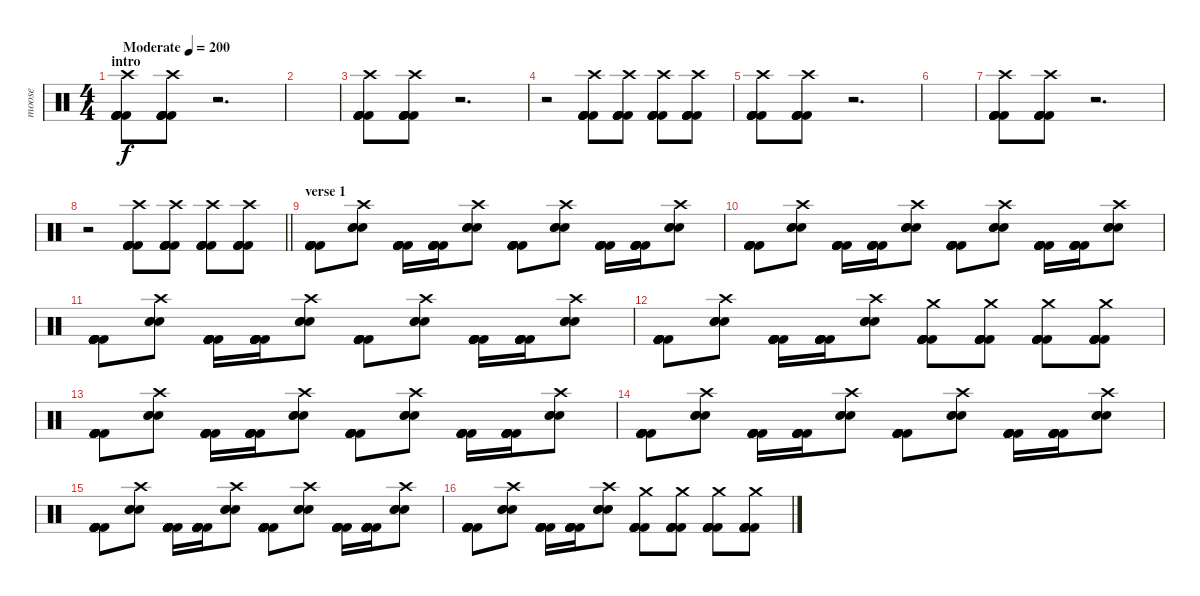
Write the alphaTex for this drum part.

\track ("moose" "moose") {instrument percussion}
\staff {score}
\articulation defaults
\ts (4 4)
\section ("" "intro")
\tempo (200 "Moderate")
\clef neutral
\ks c
("Kick (hit) 2" "Kick (hit) 2" "Kick (hit) 2" "Kick (hit) 2" "Kick (hit) 2" "Crash high (hit)").8{dy f} ("Kick (hit) 2" "Kick (hit) 2" "Kick (hit) 2" "Kick (hit) 2" "Kick (hit) 2" "Crash high (hit)").8 r.2{d} |
|
("Kick (hit) 2" "Kick (hit) 2" "Kick (hit) 2" "Kick (hit) 2" "Kick (hit) 2" "Crash high (hit)").8 ("Kick (hit) 2" "Kick (hit) 2" "Kick (hit) 2" "Kick (hit) 2" "Kick (hit) 2" "Crash high (hit)").8 r.2{d} |
r.2 ("Kick (hit) 2" "Kick (hit) 2" "Kick (hit) 2" "Kick (hit) 2" "Kick (hit) 2" "Crash high (hit)").8 ("Kick (hit) 2" "Kick (hit) 2" "Kick (hit) 2" "Kick (hit) 2" "Kick (hit) 2" "Crash high (hit)").8 ("Kick (hit) 2" "Kick (hit) 2" "Kick (hit) 2" "Kick (hit) 2" "Kick (hit) 2" "Crash high (hit)").8 ("Kick (hit) 2" "Kick (hit) 2" "Kick (hit) 2" "Kick (hit) 2" "Kick (hit) 2" "Crash high (hit)").8 |
("Kick (hit) 2" "Kick (hit) 2" "Kick (hit) 2" "Kick (hit) 2" "Kick (hit) 2" "Crash high (hit)").8 ("Kick (hit) 2" "Kick (hit) 2" "Kick (hit) 2" "Kick (hit) 2" "Kick (hit) 2" "Crash high (hit)").8 r.2{d} |
|
("Kick (hit) 2" "Kick (hit) 2" "Kick (hit) 2" "Kick (hit) 2" "Kick (hit) 2" "Crash high (hit)").8 ("Kick (hit) 2" "Kick (hit) 2" "Kick (hit) 2" "Kick (hit) 2" "Kick (hit) 2" "Crash high (hit)").8 r.2{d} |
\barLineRight lightlight
r.2 ("Kick (hit) 2" "Kick (hit) 2" "Kick (hit) 2" "Kick (hit) 2" "Kick (hit) 2" "Crash high (hit)").8 ("Kick (hit) 2" "Kick (hit) 2" "Kick (hit) 2" "Kick (hit) 2" "Kick (hit) 2" "Crash high (hit)").8 ("Kick (hit) 2" "Kick (hit) 2" "Kick (hit) 2" "Kick (hit) 2" "Kick (hit) 2" "Crash high (hit)").8 ("Kick (hit) 2" "Kick (hit) 2" "Kick (hit) 2" "Kick (hit) 2" "Kick (hit) 2" "Crash high (hit)").8 |
\section ("" "verse 1")
("Kick (hit) 2" "Kick (hit) 2" "Kick (hit) 2" "Kick (hit) 2" "Kick (hit) 2" "Kick (hit) 2").8 ("Electric Snare (hit)" "Electric Snare (hit)" "Electric Snare (hit)" "Crash high (hit)").8 ("Kick (hit) 2" "Kick (hit) 2" "Kick (hit) 2" "Kick (hit) 2" "Kick (hit) 2" "Kick (hit) 2").16 ("Kick (hit) 2" "Kick (hit) 2" "Kick (hit) 2" "Kick (hit) 2" "Kick (hit) 2" "Kick (hit) 2").16 ("Electric Snare (hit)" "Electric Snare (hit)" "Electric Snare (hit)" "Crash high (hit)").8 ("Kick (hit) 2" "Kick (hit) 2" "Kick (hit) 2" "Kick (hit) 2" "Kick (hit) 2" "Kick (hit) 2").8 ("Electric Snare (hit)" "Electric Snare (hit)" "Electric Snare (hit)" "Crash high (hit)").8 ("Kick (hit) 2" "Kick (hit) 2" "Kick (hit) 2" "Kick (hit) 2" "Kick (hit) 2" "Kick (hit) 2").16 ("Kick (hit) 2" "Kick (hit) 2" "Kick (hit) 2" "Kick (hit) 2" "Kick (hit) 2" "Kick (hit) 2").16 ("Electric Snare (hit)" "Electric Snare (hit)" "Electric Snare (hit)" "Crash high (hit)").8 |
("Kick (hit) 2" "Kick (hit) 2" "Kick (hit) 2" "Kick (hit) 2" "Kick (hit) 2" "Kick (hit) 2").8 ("Electric Snare (hit)" "Electric Snare (hit)" "Electric Snare (hit)" "Crash high (hit)").8 ("Kick (hit) 2" "Kick (hit) 2" "Kick (hit) 2" "Kick (hit) 2" "Kick (hit) 2" "Kick (hit) 2").16 ("Kick (hit) 2" "Kick (hit) 2" "Kick (hit) 2" "Kick (hit) 2" "Kick (hit) 2" "Kick (hit) 2").16 ("Electric Snare (hit)" "Electric Snare (hit)" "Electric Snare (hit)" "Crash high (hit)").8 ("Kick (hit) 2" "Kick (hit) 2" "Kick (hit) 2" "Kick (hit) 2" "Kick (hit) 2" "Kick (hit) 2").8 ("Electric Snare (hit)" "Electric Snare (hit)" "Electric Snare (hit)" "Crash high (hit)").8 ("Kick (hit) 2" "Kick (hit) 2" "Kick (hit) 2" "Kick (hit) 2" "Kick (hit) 2" "Kick (hit) 2").16 ("Kick (hit) 2" "Kick (hit) 2" "Kick (hit) 2" "Kick (hit) 2" "Kick (hit) 2" "Kick (hit) 2").16 ("Electric Snare (hit)" "Electric Snare (hit)" "Electric Snare (hit)" "Crash high (hit)").8 |
("Kick (hit) 2" "Kick (hit) 2" "Kick (hit) 2" "Kick (hit) 2" "Kick (hit) 2" "Kick (hit) 2").8 ("Electric Snare (hit)" "Electric Snare (hit)" "Electric Snare (hit)" "Crash high (hit)").8 ("Kick (hit) 2" "Kick (hit) 2" "Kick (hit) 2" "Kick (hit) 2" "Kick (hit) 2" "Kick (hit) 2").16 ("Kick (hit) 2" "Kick (hit) 2" "Kick (hit) 2" "Kick (hit) 2" "Kick (hit) 2" "Kick (hit) 2").16 ("Electric Snare (hit)" "Electric Snare (hit)" "Electric Snare (hit)" "Crash high (hit)").8 ("Kick (hit) 2" "Kick (hit) 2" "Kick (hit) 2" "Kick (hit) 2" "Kick (hit) 2" "Kick (hit) 2").8 ("Electric Snare (hit)" "Electric Snare (hit)" "Electric Snare (hit)" "Crash high (hit)").8 ("Kick (hit) 2" "Kick (hit) 2" "Kick (hit) 2" "Kick (hit) 2" "Kick (hit) 2" "Kick (hit) 2").16 ("Kick (hit) 2" "Kick (hit) 2" "Kick (hit) 2" "Kick (hit) 2" "Kick (hit) 2" "Kick (hit) 2").16 ("Electric Snare (hit)" "Electric Snare (hit)" "Electric Snare (hit)" "Crash high (hit)").8 |
("Kick (hit) 2" "Kick (hit) 2" "Kick (hit) 2" "Kick (hit) 2" "Kick (hit) 2" "Kick (hit) 2").8 ("Electric Snare (hit)" "Electric Snare (hit)" "Electric Snare (hit)" "Crash high (hit)").8 ("Kick (hit) 2" "Kick (hit) 2" "Kick (hit) 2" "Kick (hit) 2" "Kick (hit) 2" "Kick (hit) 2").16 ("Kick (hit) 2" "Kick (hit) 2" "Kick (hit) 2" "Kick (hit) 2" "Kick (hit) 2" "Kick (hit) 2").16 ("Electric Snare (hit)" "Electric Snare (hit)" "Electric Snare (hit)" "Crash high (hit)").8 ("Kick (hit) 2" "Kick (hit) 2" "Kick (hit) 2" "Kick (hit) 2" "Kick (hit) 2" "Crash medium (hit)").8 ("Kick (hit) 2" "Kick (hit) 2" "Kick (hit) 2" "Kick (hit) 2" "Kick (hit) 2" "Crash medium (hit)").8 ("Kick (hit) 2" "Kick (hit) 2" "Kick (hit) 2" "Kick (hit) 2" "Kick (hit) 2" "Crash medium (hit)").8 ("Kick (hit) 2" "Kick (hit) 2" "Kick (hit) 2" "Kick (hit) 2" "Kick (hit) 2" "Crash medium (hit)").8 |
("Kick (hit) 2" "Kick (hit) 2" "Kick (hit) 2" "Kick (hit) 2" "Kick (hit) 2" "Kick (hit) 2").8 ("Electric Snare (hit)" "Electric Snare (hit)" "Electric Snare (hit)" "Crash high (hit)").8 ("Kick (hit) 2" "Kick (hit) 2" "Kick (hit) 2" "Kick (hit) 2" "Kick (hit) 2" "Kick (hit) 2").16 ("Kick (hit) 2" "Kick (hit) 2" "Kick (hit) 2" "Kick (hit) 2" "Kick (hit) 2" "Kick (hit) 2").16 ("Electric Snare (hit)" "Electric Snare (hit)" "Electric Snare (hit)" "Crash high (hit)").8 ("Kick (hit) 2" "Kick (hit) 2" "Kick (hit) 2" "Kick (hit) 2" "Kick (hit) 2" "Kick (hit) 2").8 ("Electric Snare (hit)" "Electric Snare (hit)" "Electric Snare (hit)" "Crash high (hit)").8 ("Kick (hit) 2" "Kick (hit) 2" "Kick (hit) 2" "Kick (hit) 2" "Kick (hit) 2" "Kick (hit) 2").16 ("Kick (hit) 2" "Kick (hit) 2" "Kick (hit) 2" "Kick (hit) 2" "Kick (hit) 2" "Kick (hit) 2").16 ("Electric Snare (hit)" "Electric Snare (hit)" "Electric Snare (hit)" "Crash high (hit)").8 |
("Kick (hit) 2" "Kick (hit) 2" "Kick (hit) 2" "Kick (hit) 2" "Kick (hit) 2" "Kick (hit) 2").8 ("Electric Snare (hit)" "Electric Snare (hit)" "Electric Snare (hit)" "Crash high (hit)").8 ("Kick (hit) 2" "Kick (hit) 2" "Kick (hit) 2" "Kick (hit) 2" "Kick (hit) 2" "Kick (hit) 2").16 ("Kick (hit) 2" "Kick (hit) 2" "Kick (hit) 2" "Kick (hit) 2" "Kick (hit) 2" "Kick (hit) 2").16 ("Electric Snare (hit)" "Electric Snare (hit)" "Electric Snare (hit)" "Crash high (hit)").8 ("Kick (hit) 2" "Kick (hit) 2" "Kick (hit) 2" "Kick (hit) 2" "Kick (hit) 2" "Kick (hit) 2").8 ("Electric Snare (hit)" "Electric Snare (hit)" "Electric Snare (hit)" "Crash high (hit)").8 ("Kick (hit) 2" "Kick (hit) 2" "Kick (hit) 2" "Kick (hit) 2" "Kick (hit) 2" "Kick (hit) 2").16 ("Kick (hit) 2" "Kick (hit) 2" "Kick (hit) 2" "Kick (hit) 2" "Kick (hit) 2" "Kick (hit) 2").16 ("Electric Snare (hit)" "Electric Snare (hit)" "Electric Snare (hit)" "Crash high (hit)").8 |
("Kick (hit) 2" "Kick (hit) 2" "Kick (hit) 2" "Kick (hit) 2" "Kick (hit) 2" "Kick (hit) 2").8 ("Electric Snare (hit)" "Electric Snare (hit)" "Electric Snare (hit)" "Crash high (hit)").8 ("Kick (hit) 2" "Kick (hit) 2" "Kick (hit) 2" "Kick (hit) 2" "Kick (hit) 2" "Kick (hit) 2").16 ("Kick (hit) 2" "Kick (hit) 2" "Kick (hit) 2" "Kick (hit) 2" "Kick (hit) 2" "Kick (hit) 2").16 ("Electric Snare (hit)" "Electric Snare (hit)" "Electric Snare (hit)" "Crash high (hit)").8 ("Kick (hit) 2" "Kick (hit) 2" "Kick (hit) 2" "Kick (hit) 2" "Kick (hit) 2" "Kick (hit) 2").8 ("Electric Snare (hit)" "Electric Snare (hit)" "Electric Snare (hit)" "Crash high (hit)").8 ("Kick (hit) 2" "Kick (hit) 2" "Kick (hit) 2" "Kick (hit) 2" "Kick (hit) 2" "Kick (hit) 2").16 ("Kick (hit) 2" "Kick (hit) 2" "Kick (hit) 2" "Kick (hit) 2" "Kick (hit) 2" "Kick (hit) 2").16 ("Electric Snare (hit)" "Electric Snare (hit)" "Electric Snare (hit)" "Crash high (hit)").8 |
("Kick (hit) 2" "Kick (hit) 2" "Kick (hit) 2" "Kick (hit) 2" "Kick (hit) 2" "Kick (hit) 2").8 ("Electric Snare (hit)" "Electric Snare (hit)" "Electric Snare (hit)" "Crash high (hit)").8 ("Kick (hit) 2" "Kick (hit) 2" "Kick (hit) 2" "Kick (hit) 2" "Kick (hit) 2" "Kick (hit) 2").16 ("Kick (hit) 2" "Kick (hit) 2" "Kick (hit) 2" "Kick (hit) 2" "Kick (hit) 2" "Kick (hit) 2").16 ("Electric Snare (hit)" "Electric Snare (hit)" "Electric Snare (hit)" "Crash high (hit)").8 ("Kick (hit) 2" "Kick (hit) 2" "Kick (hit) 2" "Kick (hit) 2" "Kick (hit) 2" "Crash medium (hit)").8 ("Kick (hit) 2" "Kick (hit) 2" "Kick (hit) 2" "Kick (hit) 2" "Kick (hit) 2" "Crash medium (hit)").8 ("Kick (hit) 2" "Kick (hit) 2" "Kick (hit) 2" "Kick (hit) 2" "Kick (hit) 2" "Crash medium (hit)").8 ("Kick (hit) 2" "Kick (hit) 2" "Kick (hit) 2" "Kick (hit) 2" "Kick (hit) 2" "Crash medium (hit)").8
